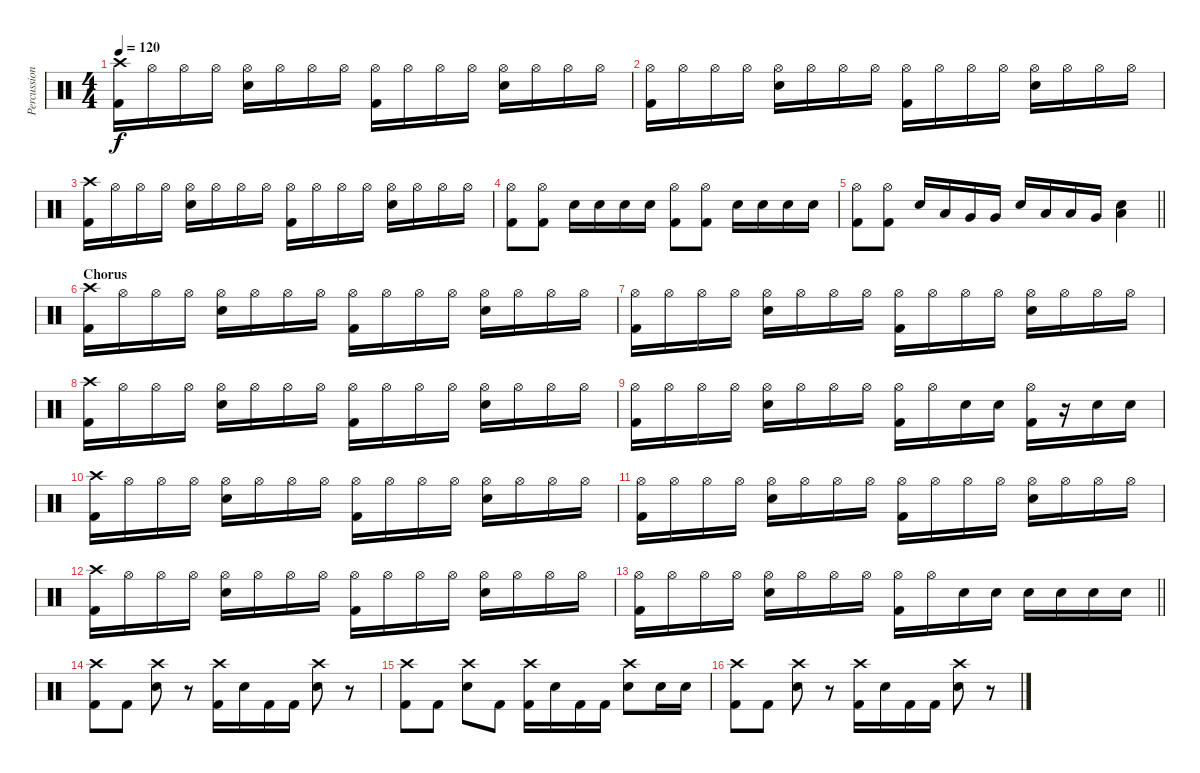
\track ("Percussion" "Percussion") {instrument percussion}
\staff {score}
\articulation defaults
\ts (4 4)
\tempo 120
\clef neutral
\ks c
("Crash high (hit)" "Kick (hit) 2").16{dy f} "Hi-Hat (open)".16 "Hi-Hat (open)".16 "Hi-Hat (open)".16 ("Hi-Hat (open)" "Electric Snare (hit)").16 "Hi-Hat (open)".16 "Hi-Hat (open)".16 "Hi-Hat (open)".16 ("Hi-Hat (open)" "Kick (hit) 2").16 "Hi-Hat (open)".16 "Hi-Hat (open)".16 "Hi-Hat (open)".16 ("Hi-Hat (open)" "Electric Snare (hit)").16 "Hi-Hat (open)".16 "Hi-Hat (open)".16 "Hi-Hat (open)".16 |
("Hi-Hat (open)" "Kick (hit) 2").16 "Hi-Hat (open)".16 "Hi-Hat (open)".16 "Hi-Hat (open)".16 ("Hi-Hat (open)" "Electric Snare (hit)").16 "Hi-Hat (open)".16 "Hi-Hat (open)".16 "Hi-Hat (open)".16 ("Hi-Hat (open)" "Kick (hit) 2").16 "Hi-Hat (open)".16 "Hi-Hat (open)".16 "Hi-Hat (open)".16 ("Hi-Hat (open)" "Electric Snare (hit)").16 "Hi-Hat (open)".16 "Hi-Hat (open)".16 "Hi-Hat (open)".16 |
("Crash high (hit)" "Kick (hit) 2").16 "Hi-Hat (open)".16 "Hi-Hat (open)".16 "Hi-Hat (open)".16 ("Hi-Hat (open)" "Electric Snare (hit)").16 "Hi-Hat (open)".16 "Hi-Hat (open)".16 "Hi-Hat (open)".16 ("Hi-Hat (open)" "Kick (hit) 2").16 "Hi-Hat (open)".16 "Hi-Hat (open)".16 "Hi-Hat (open)".16 ("Hi-Hat (open)" "Electric Snare (hit)").16 "Hi-Hat (open)".16 "Hi-Hat (open)".16 "Hi-Hat (open)".16 |
("Hi-Hat (open)" "Kick (hit) 2").8 ("Hi-Hat (open)" "Kick (hit) 2").8 "Electric Snare (hit)".16 "Electric Snare (hit)".16 "Electric Snare (hit)".16 "Electric Snare (hit)".16 ("Kick (hit) 2" "Hi-Hat (open)").8 ("Kick (hit) 2" "Hi-Hat (open)").8 "Electric Snare (hit)".16 "Electric Snare (hit)".16 "Electric Snare (hit)".16 "Electric Snare (hit)".16 |
\barLineRight lightlight
("Hi-Hat (open)" "Kick (hit) 2").8 ("Hi-Hat (open)" "Kick (hit) 2").8 "Electric Snare (hit)".16 "Low Tom (hit)".16 "Very Low Tom (hit)".16 "Very Low Tom (hit)".16 "Electric Snare (hit)".16 "Low Tom (hit)".16 "Low Tom (hit)".16 "Very Low Tom (hit)".16 ("Electric Snare (hit)" "Low Floor Tom (hit)").4 |
\section ("" "Chorus")
("Crash high (hit)" "Kick (hit) 2").16 "Hi-Hat (open)".16 "Hi-Hat (open)".16 "Hi-Hat (open)".16 ("Hi-Hat (open)" "Electric Snare (hit)").16 "Hi-Hat (open)".16 "Hi-Hat (open)".16 "Hi-Hat (open)".16 ("Hi-Hat (open)" "Kick (hit) 2").16 "Hi-Hat (open)".16 "Hi-Hat (open)".16 "Hi-Hat (open)".16 ("Hi-Hat (open)" "Electric Snare (hit)").16 "Hi-Hat (open)".16 "Hi-Hat (open)".16 "Hi-Hat (open)".16 |
("Hi-Hat (open)" "Kick (hit) 2").16 "Hi-Hat (open)".16 "Hi-Hat (open)".16 "Hi-Hat (open)".16 ("Hi-Hat (open)" "Electric Snare (hit)").16 "Hi-Hat (open)".16 "Hi-Hat (open)".16 "Hi-Hat (open)".16 ("Hi-Hat (open)" "Kick (hit) 2").16 "Hi-Hat (open)".16 "Hi-Hat (open)".16 "Hi-Hat (open)".16 ("Hi-Hat (open)" "Electric Snare (hit)").16 "Hi-Hat (open)".16 "Hi-Hat (open)".16 "Hi-Hat (open)".16 |
("Crash high (hit)" "Kick (hit) 2").16 "Hi-Hat (open)".16 "Hi-Hat (open)".16 "Hi-Hat (open)".16 ("Hi-Hat (open)" "Electric Snare (hit)").16 "Hi-Hat (open)".16 "Hi-Hat (open)".16 "Hi-Hat (open)".16 ("Hi-Hat (open)" "Kick (hit) 2").16 "Hi-Hat (open)".16 "Hi-Hat (open)".16 "Hi-Hat (open)".16 ("Hi-Hat (open)" "Electric Snare (hit)").16 "Hi-Hat (open)".16 "Hi-Hat (open)".16 "Hi-Hat (open)".16 |
("Hi-Hat (open)" "Kick (hit) 2").16 "Hi-Hat (open)".16 "Hi-Hat (open)".16 "Hi-Hat (open)".16 ("Hi-Hat (open)" "Electric Snare (hit)").16 "Hi-Hat (open)".16 "Hi-Hat (open)".16 "Hi-Hat (open)".16 ("Hi-Hat (open)" "Kick (hit) 2").16 "Hi-Hat (open)".16 "Electric Snare (hit)".16 "Electric Snare (hit)".16 ("Hi-Hat (open)" "Kick (hit) 2").16 r.16 "Electric Snare (hit)".16 "Electric Snare (hit)".16 |
("Crash high (hit)" "Kick (hit) 2").16 "Hi-Hat (open)".16 "Hi-Hat (open)".16 "Hi-Hat (open)".16 ("Hi-Hat (open)" "Electric Snare (hit)").16 "Hi-Hat (open)".16 "Hi-Hat (open)".16 "Hi-Hat (open)".16 ("Hi-Hat (open)" "Kick (hit) 2").16 "Hi-Hat (open)".16 "Hi-Hat (open)".16 "Hi-Hat (open)".16 ("Hi-Hat (open)" "Electric Snare (hit)").16 "Hi-Hat (open)".16 "Hi-Hat (open)".16 "Hi-Hat (open)".16 |
("Hi-Hat (open)" "Kick (hit) 2").16 "Hi-Hat (open)".16 "Hi-Hat (open)".16 "Hi-Hat (open)".16 ("Hi-Hat (open)" "Electric Snare (hit)").16 "Hi-Hat (open)".16 "Hi-Hat (open)".16 "Hi-Hat (open)".16 ("Hi-Hat (open)" "Kick (hit) 2").16 "Hi-Hat (open)".16 "Hi-Hat (open)".16 "Hi-Hat (open)".16 ("Hi-Hat (open)" "Electric Snare (hit)").16 "Hi-Hat (open)".16 "Hi-Hat (open)".16 "Hi-Hat (open)".16 |
("Crash high (hit)" "Kick (hit) 2").16 "Hi-Hat (open)".16 "Hi-Hat (open)".16 "Hi-Hat (open)".16 ("Hi-Hat (open)" "Electric Snare (hit)").16 "Hi-Hat (open)".16 "Hi-Hat (open)".16 "Hi-Hat (open)".16 ("Hi-Hat (open)" "Kick (hit) 2").16 "Hi-Hat (open)".16 "Hi-Hat (open)".16 "Hi-Hat (open)".16 ("Hi-Hat (open)" "Electric Snare (hit)").16 "Hi-Hat (open)".16 "Hi-Hat (open)".16 "Hi-Hat (open)".16 |
\barLineRight lightlight
("Hi-Hat (open)" "Kick (hit) 2").16 "Hi-Hat (open)".16 "Hi-Hat (open)".16 "Hi-Hat (open)".16 ("Hi-Hat (open)" "Electric Snare (hit)").16 "Hi-Hat (open)".16 "Hi-Hat (open)".16 "Hi-Hat (open)".16 ("Hi-Hat (open)" "Kick (hit) 2").16 "Hi-Hat (open)".16 "Electric Snare (hit)".16 "Electric Snare (hit)".16 "Electric Snare (hit)".16 "Electric Snare (hit)".16 "Electric Snare (hit)".16 "Electric Snare (hit)".16 |
("Kick (hit) 2" "Crash high (hit)").8 "Kick (hit) 2".8 ("Electric Snare (hit)" "Crash high (hit)").8 r.8 ("Kick (hit) 2" "Crash high (hit)").16 "Electric Snare (hit)".16 "Kick (hit) 2".16 "Kick (hit) 2".16 ("Electric Snare (hit)" "Crash high (hit)").8 r.8 |
("Kick (hit) 2" "Crash high (hit)").8 "Kick (hit) 2".8 ("Electric Snare (hit)" "Crash high (hit)").8 "Kick (hit) 2".8 ("Kick (hit) 2" "Crash high (hit)").16 "Electric Snare (hit)".16 "Kick (hit) 2".16 "Kick (hit) 2".16 ("Electric Snare (hit)" "Crash high (hit)").8 "Electric Snare (hit)".16 "Electric Snare (hit)".16 |
("Kick (hit) 2" "Crash high (hit)").8 "Kick (hit) 2".8 ("Electric Snare (hit)" "Crash high (hit)").8 r.8 ("Kick (hit) 2" "Crash high (hit)").16 "Electric Snare (hit)".16 "Kick (hit) 2".16 "Kick (hit) 2".16 ("Electric Snare (hit)" "Crash high (hit)").8 r.8
